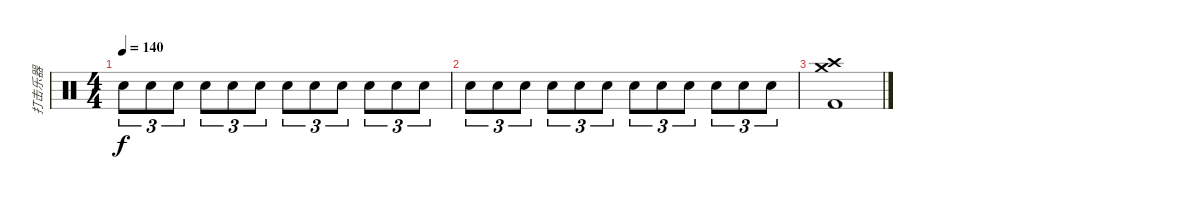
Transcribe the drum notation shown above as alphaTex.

\track ("打击乐器" "打击乐器") {instrument percussion}
\staff {score}
\articulation defaults
\ts (4 4)
\tempo 140
\clef neutral
\ks c "Snare (hit) 2".8{tu (3 2) dy f} "Electric Snare (hit)".8{tu (3 2)} "Snare (hit) 2".8{tu (3 2)} "Snare (hit) 2".8{tu (3 2)} "Electric Snare (hit)".8{tu (3 2)} "Snare (hit) 2".8{tu (3 2)} "Snare (hit) 2".8{tu (3 2)} "Electric Snare (hit)".8{tu (3 2)} "Snare (hit) 2".8{tu (3 2)} "Snare (hit) 2".8{tu (3 2)} "Electric Snare (hit)".8{tu (3 2)} "Snare (hit) 2".8{tu (3 2)}
|
"Snare (hit) 2".8{tu (3 2)} "Electric Snare (hit)".8{tu (3 2)} "Snare (hit) 2".8{tu (3 2)} "Snare (hit) 2".8{tu (3 2)} "Electric Snare (hit)".8{tu (3 2)} "Snare (hit) 2".8{tu (3 2)} "Snare (hit) 2".8{tu (3 2)} "Electric Snare (hit)".8{tu (3 2)} "Snare (hit) 2".8{tu (3 2)} "Snare (hit) 2".8{tu (3 2)} "Electric Snare (hit)".8{tu (3 2)} "Snare (hit) 2".8{tu (3 2)} |
("Crash high (hit)" "Crash medium (hit)" "Kick (hit) 2").1
